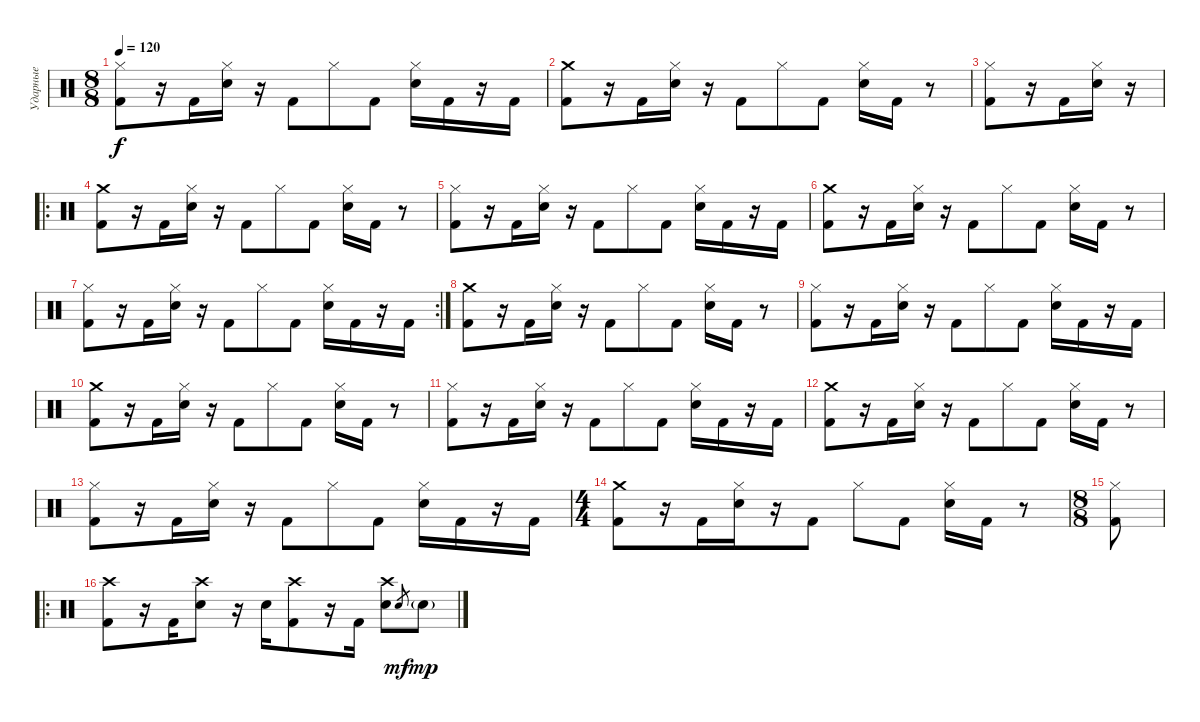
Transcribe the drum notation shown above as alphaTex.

\track ("Ударные" "Ударные") {instrument percussion}
\staff {score}
\articulation defaults
\ts (8 8)
\tempo 120
\clef neutral
\ks c
("Hi-Hat (closed)" "Kick (hit) 2").8{dy f} r.16 "Kick (hit) 2".16{beam merge} ("Hi-Hat (closed)" "Electric Snare (hit)").16 r.16 "Kick (hit) 2".8 "Hi-Hat (closed)".8 "Kick (hit) 2".8 ("Hi-Hat (closed)" "Electric Snare (hit)").16 "Kick (hit) 2".16 r.16 "Kick (hit) 2".16 |
("Crash medium (hit)" "Kick (hit) 2").8 r.16 "Kick (hit) 2".16{beam merge} ("Hi-Hat (closed)" "Electric Snare (hit)").16 r.16 "Kick (hit) 2".8 "Hi-Hat (closed)".8 "Kick (hit) 2".8 ("Hi-Hat (closed)" "Electric Snare (hit)").16 "Kick (hit) 2".16 r.8 |
("Hi-Hat (closed)" "Kick (hit) 2").8 r.16 "Kick (hit) 2".16{beam merge} ("Hi-Hat (closed)" "Electric Snare (hit)").16 r.16 |
\ro
("Crash medium (hit)" "Kick (hit) 2").8 r.16 "Kick (hit) 2".16{beam merge} ("Hi-Hat (closed)" "Electric Snare (hit)").16 r.16 "Kick (hit) 2".8 "Hi-Hat (closed)".8 "Kick (hit) 2".8 ("Hi-Hat (closed)" "Electric Snare (hit)").16 "Kick (hit) 2".16 r.8 |
("Hi-Hat (closed)" "Kick (hit) 2").8 r.16 "Kick (hit) 2".16{beam merge} ("Hi-Hat (closed)" "Electric Snare (hit)").16 r.16 "Kick (hit) 2".8 "Hi-Hat (closed)".8 "Kick (hit) 2".8 ("Hi-Hat (closed)" "Electric Snare (hit)").16 "Kick (hit) 2".16 r.16 "Kick (hit) 2".16 |
("Crash medium (hit)" "Kick (hit) 2").8 r.16 "Kick (hit) 2".16{beam merge} ("Hi-Hat (closed)" "Electric Snare (hit)").16 r.16 "Kick (hit) 2".8 "Hi-Hat (closed)".8 "Kick (hit) 2".8 ("Hi-Hat (closed)" "Electric Snare (hit)").16 "Kick (hit) 2".16 r.8 |
\rc 2
("Hi-Hat (closed)" "Kick (hit) 2").8 r.16 "Kick (hit) 2".16{beam merge} ("Hi-Hat (closed)" "Electric Snare (hit)").16 r.16 "Kick (hit) 2".8 "Hi-Hat (closed)".8 "Kick (hit) 2".8 ("Hi-Hat (closed)" "Electric Snare (hit)").16 "Kick (hit) 2".16 r.16 "Kick (hit) 2".16 |
("Crash medium (hit)" "Kick (hit) 2").8 r.16 "Kick (hit) 2".16{beam merge} ("Hi-Hat (closed)" "Electric Snare (hit)").16 r.16 "Kick (hit) 2".8 "Hi-Hat (closed)".8 "Kick (hit) 2".8 ("Hi-Hat (closed)" "Electric Snare (hit)").16 "Kick (hit) 2".16 r.8 |
("Hi-Hat (closed)" "Kick (hit) 2").8 r.16 "Kick (hit) 2".16{beam merge} ("Hi-Hat (closed)" "Electric Snare (hit)").16 r.16 "Kick (hit) 2".8 "Hi-Hat (closed)".8 "Kick (hit) 2".8 ("Hi-Hat (closed)" "Electric Snare (hit)").16 "Kick (hit) 2".16 r.16 "Kick (hit) 2".16 |
("Crash medium (hit)" "Kick (hit) 2").8 r.16 "Kick (hit) 2".16{beam merge} ("Hi-Hat (closed)" "Electric Snare (hit)").16 r.16 "Kick (hit) 2".8 "Hi-Hat (closed)".8 "Kick (hit) 2".8 ("Hi-Hat (closed)" "Electric Snare (hit)").16 "Kick (hit) 2".16 r.8 |
("Hi-Hat (closed)" "Kick (hit) 2").8 r.16 "Kick (hit) 2".16{beam merge} ("Hi-Hat (closed)" "Electric Snare (hit)").16 r.16 "Kick (hit) 2".8 "Hi-Hat (closed)".8 "Kick (hit) 2".8 ("Hi-Hat (closed)" "Electric Snare (hit)").16 "Kick (hit) 2".16 r.16 "Kick (hit) 2".16 |
("Crash medium (hit)" "Kick (hit) 2").8 r.16 "Kick (hit) 2".16{beam merge} ("Hi-Hat (closed)" "Electric Snare (hit)").16 r.16 "Kick (hit) 2".8 "Hi-Hat (closed)".8 "Kick (hit) 2".8 ("Hi-Hat (closed)" "Electric Snare (hit)").16 "Kick (hit) 2".16 r.8 |
("Hi-Hat (closed)" "Kick (hit) 2").8 r.16 "Kick (hit) 2".16{beam merge} ("Hi-Hat (closed)" "Electric Snare (hit)").16 r.16 "Kick (hit) 2".8 "Hi-Hat (closed)".8 "Kick (hit) 2".8 ("Hi-Hat (closed)" "Electric Snare (hit)").16 "Kick (hit) 2".16 r.16 "Kick (hit) 2".16 |
\ts (4 4)
("Crash medium (hit)" "Kick (hit) 2").8 r.16 "Kick (hit) 2".16{beam merge} ("Hi-Hat (closed)" "Electric Snare (hit)").16 r.16 "Kick (hit) 2".8 "Hi-Hat (closed)".8 "Kick (hit) 2".8 ("Hi-Hat (closed)" "Electric Snare (hit)").16 "Kick (hit) 2".16 r.8 |
\ts (8 8)
("Hi-Hat (closed)" "Kick (hit) 2").8 |
\ro
("Crash high (hit)" "Kick (hit) 2").8 r.16 "Kick (hit) 2".16 ("Crash high (hit)" "Electric Snare (hit)").8 r.16 "Electric Snare (hit)".16 ("Crash high (hit)" "Kick (hit) 2").8 r.16 "Kick (hit) 2".16 ("Crash high (hit)" "Electric Snare (hit)").8 "Electric Snare (hit)".8{gr dy mf} "Electric Snare (hit)"{g}.8{dy mp}
